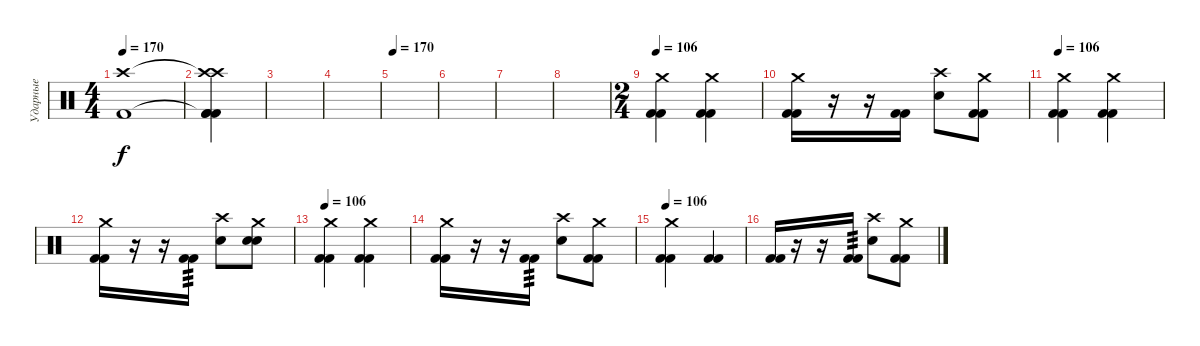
\track ("Ударные" "Ударные") {instrument percussion}
\staff {score}
\articulation defaults
\ts (4 4)
\tempo 170
\clef neutral
\ks c
("Crash high (hit)" "Kick (hit) 2").1{dy f} |
("Crash high (hit)"{t} "Kick (hit) 2"{t} "Kick (hit) 2" "Kick (hit) 2" "Crash high (hit)").4 |
|
|
\tempo 170
|
|
|
|
\ts (2 4)
\tempo 106
("Crash medium (hit)" "Kick (hit) 2" "Kick (hit) 2").4 ("Crash medium (hit)" "Kick (hit) 2" "Kick (hit) 2").4 |
("Crash medium (hit)" "Kick (hit) 2" "Kick (hit) 2").16 r.16 r.16 ("Kick (hit) 2" "Kick (hit) 2").16 ("Crash high (hit)" "Electric Snare (hit)").8 ("Crash medium (hit)" "Kick (hit) 2" "Kick (hit) 2").8 |
\tempo 106
("Crash medium (hit)" "Kick (hit) 2" "Kick (hit) 2").4 ("Crash medium (hit)" "Kick (hit) 2" "Kick (hit) 2").4 |
("Crash medium (hit)" "Kick (hit) 2" "Kick (hit) 2").16 r.16 r.16 ("Kick (hit) 2" "Kick (hit) 2").16{tp 3} ("Crash high (hit)" "Electric Snare (hit)").8 ("Crash medium (hit)" "Electric Snare (hit)" "Electric Snare (hit)").8 |
\tempo 106
("Crash medium (hit)" "Kick (hit) 2" "Kick (hit) 2").4 ("Crash medium (hit)" "Kick (hit) 2" "Kick (hit) 2").4 |
("Crash medium (hit)" "Kick (hit) 2" "Kick (hit) 2").16 r.16 r.16 ("Kick (hit) 2" "Kick (hit) 2").16{tp 3} ("Crash high (hit)" "Electric Snare (hit)").8 ("Crash medium (hit)" "Kick (hit) 2" "Kick (hit) 2").8 |
\tempo 106
("Crash medium (hit)" "Kick (hit) 2" "Kick (hit) 2").4 ("Kick (hit) 2" "Kick (hit) 2").4 |
("Kick (hit) 2" "Kick (hit) 2").16 r.16 r.16 ("Kick (hit) 2" "Kick (hit) 2").16{tp 3} ("Crash high (hit)" "Electric Snare (hit)").8 ("Crash medium (hit)" "Kick (hit) 2" "Kick (hit) 2").8
